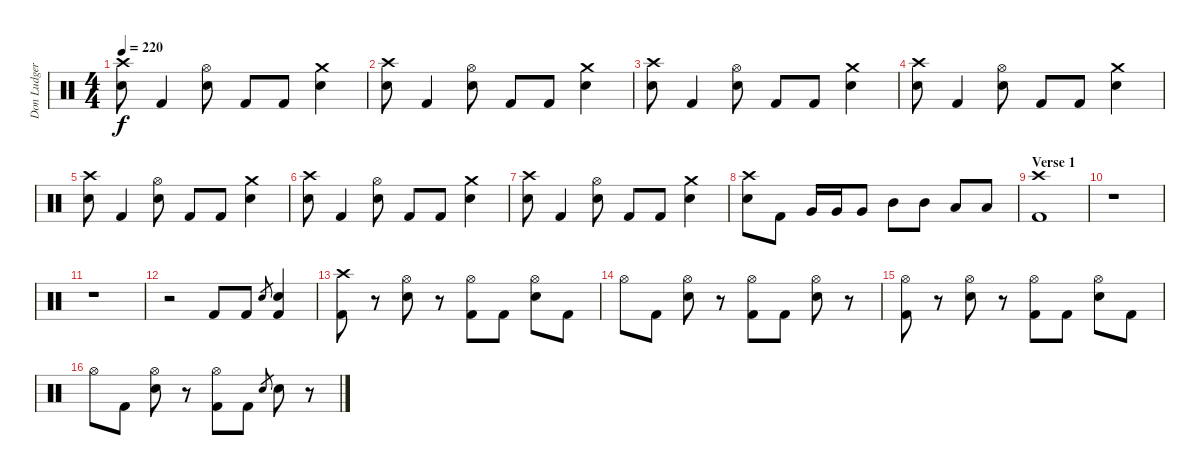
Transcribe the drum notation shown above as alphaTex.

\track ("Don Ludger" "Don Ludger") {instrument percussion}
\staff {score}
\articulation defaults
\ts (4 4)
\tempo 220
\clef neutral
\ks c
("Crash high (hit)" "Electric Snare (hit)").8{dy f} "Kick (hit) 2".4 ("Hi-Hat (open)" "Electric Snare (hit)").8 "Kick (hit) 2".8 "Kick (hit) 2".8 ("Crash medium (hit)" "Electric Snare (hit)").4 |
("Crash high (hit)" "Electric Snare (hit)").8 "Kick (hit) 2".4 ("Hi-Hat (open)" "Electric Snare (hit)").8 "Kick (hit) 2".8 "Kick (hit) 2".8 ("Crash medium (hit)" "Electric Snare (hit)").4 |
("Crash high (hit)" "Electric Snare (hit)").8 "Kick (hit) 2".4 ("Hi-Hat (open)" "Electric Snare (hit)").8 "Kick (hit) 2".8 "Kick (hit) 2".8 ("Crash medium (hit)" "Electric Snare (hit)").4 |
("Crash high (hit)" "Electric Snare (hit)").8 "Kick (hit) 2".4 ("Hi-Hat (open)" "Electric Snare (hit)").8 "Kick (hit) 2".8 "Kick (hit) 2".8 ("Crash medium (hit)" "Electric Snare (hit)").4 |
("Crash high (hit)" "Electric Snare (hit)").8 "Kick (hit) 2".4 ("Hi-Hat (open)" "Electric Snare (hit)").8 "Kick (hit) 2".8 "Kick (hit) 2".8 ("Crash medium (hit)" "Electric Snare (hit)").4 |
("Crash high (hit)" "Electric Snare (hit)").8 "Kick (hit) 2".4 ("Hi-Hat (open)" "Electric Snare (hit)").8 "Kick (hit) 2".8 "Kick (hit) 2".8 ("Crash medium (hit)" "Electric Snare (hit)").4 |
("Crash high (hit)" "Electric Snare (hit)").8 "Kick (hit) 2".4 ("Hi-Hat (open)" "Electric Snare (hit)").8 "Kick (hit) 2".8 "Kick (hit) 2".8 ("Crash medium (hit)" "Electric Snare (hit)").4 |
("Crash high (hit)" "Electric Snare (hit)").8 "Kick (hit) 2".8 "Very Low Tom (hit)".16 "Very Low Tom (hit)".16 "Very Low Tom (hit)".8 "Mid Tom (hit)".8 "Mid Tom (hit)".8 "Low Tom (hit)".8 "Low Tom (hit)".8 |
\section ("" "Verse 1")
("Crash high (hit)" "Kick (hit) 2").1 |
r.1 |
r.1 |
r.2 "Kick (hit) 2".8 "Kick (hit) 2".8 "Electric Snare (hit)".8{gr} ("Electric Snare (hit)" "Kick (hit) 2").4 |
("Crash high (hit)" "Kick (hit) 2").8 r.8 ("Hi-Hat (open)" "Electric Snare (hit)").8 r.8 ("Hi-Hat (open)" "Kick (hit) 2").8 "Kick (hit) 2".8 ("Hi-Hat (open)" "Electric Snare (hit)").8 "Kick (hit) 2".8 |
"Hi-Hat (open)".8 "Kick (hit) 2".8 ("Hi-Hat (open)" "Electric Snare (hit)").8 r.8 ("Hi-Hat (open)" "Kick (hit) 2").8 "Kick (hit) 2".8 ("Hi-Hat (open)" "Electric Snare (hit)").8 r.8 |
("Hi-Hat (open)" "Kick (hit) 2").8 r.8 ("Hi-Hat (open)" "Electric Snare (hit)").8 r.8 ("Hi-Hat (open)" "Kick (hit) 2").8 "Kick (hit) 2".8 ("Hi-Hat (open)" "Electric Snare (hit)").8 "Kick (hit) 2".8 |
"Hi-Hat (open)".8 "Kick (hit) 2".8 ("Hi-Hat (open)" "Electric Snare (hit)").8 r.8 ("Hi-Hat (open)" "Kick (hit) 2").8 "Kick (hit) 2".8 "Electric Snare (hit)".8{gr} "Electric Snare (hit)".8 r.8
